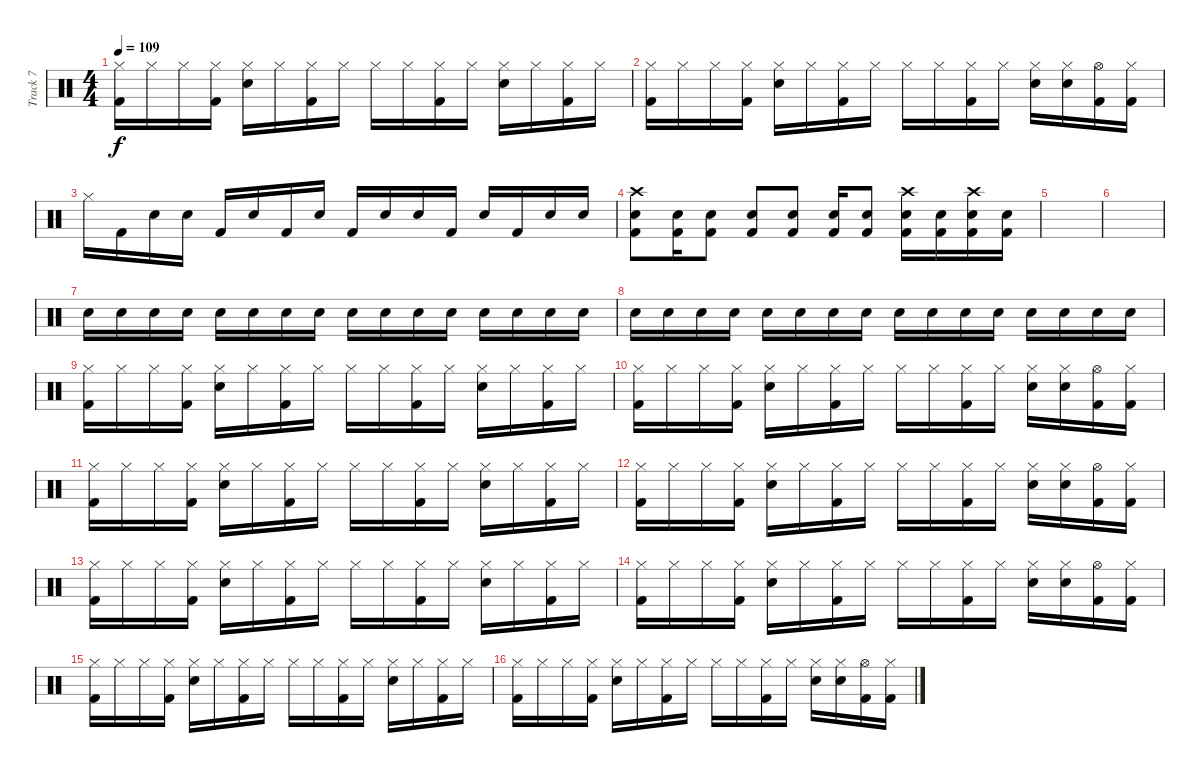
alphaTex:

\track ("Track 7" "Track 7") {instrument percussion}
\staff {score}
\articulation defaults
\ts (4 4)
\tempo 109
\clef neutral
\ks c
("Hi-Hat (closed)" "Kick (hit) 2").16{dy f} "Hi-Hat (closed)".16 "Hi-Hat (closed)".16 ("Hi-Hat (closed)" "Kick (hit) 2").16 ("Hi-Hat (closed)" "Snare (hit) 2").16 "Hi-Hat (closed)".16 ("Hi-Hat (closed)" "Kick (hit) 2").16 "Hi-Hat (closed)".16 "Hi-Hat (closed)".16 "Hi-Hat (closed)".16 ("Hi-Hat (closed)" "Kick (hit) 2").16 "Hi-Hat (closed)".16 ("Hi-Hat (closed)" "Snare (hit) 2").16 "Hi-Hat (closed)".16 ("Hi-Hat (closed)" "Kick (hit) 2").16 "Hi-Hat (closed)".16 |
("Hi-Hat (closed)" "Kick (hit) 2").16 "Hi-Hat (closed)".16 "Hi-Hat (closed)".16 ("Hi-Hat (closed)" "Kick (hit) 2").16 ("Hi-Hat (closed)" "Snare (hit) 2").16 "Hi-Hat (closed)".16 ("Hi-Hat (closed)" "Kick (hit) 2").16 "Hi-Hat (closed)".16 "Hi-Hat (closed)".16 "Hi-Hat (closed)".16 ("Hi-Hat (closed)" "Kick (hit) 2").16 "Hi-Hat (closed)".16 ("Hi-Hat (closed)" "Snare (hit) 2").16 ("Hi-Hat (closed)" "Snare (hit) 2").16 ("Hi-Hat (open)" "Kick (hit) 2").16 ("Hi-Hat (closed)" "Kick (hit) 2").16 |
"Hi-Hat (closed)".16 "Kick (hit) 2".16 "Snare (hit) 2".16 "Snare (hit) 2".16 "Kick (hit) 2".16 "Snare (hit) 2".16 "Kick (hit) 2".16 "Snare (hit) 2".16 "Kick (hit) 2".16 "Snare (hit) 2".16 "Snare (hit) 2".16 "Kick (hit) 2".16 "Snare (hit) 2".16 "Kick (hit) 2".16 "Snare (hit) 2".16 "Snare (hit) 2".16 |
("Crash high (hit)" "Snare (hit) 2" "Kick (hit) 2").8 ("Snare (hit) 2" "Kick (hit) 2").16 ("Snare (hit) 2" "Kick (hit) 2").8 ("Snare (hit) 2" "Kick (hit) 2").8 ("Snare (hit) 2" "Kick (hit) 2").8 ("Snare (hit) 2" "Kick (hit) 2").16 ("Snare (hit) 2" "Kick (hit) 2").8 ("Crash high (hit)" "Snare (hit) 2" "Kick (hit) 2").16 ("Snare (hit) 2" "Kick (hit) 2").16 ("Crash high (hit)" "Snare (hit) 2" "Kick (hit) 2").16 ("Snare (hit) 2" "Kick (hit) 2").16 |
|
|
"Snare (hit) 2".16 "Snare (hit) 2".16{volume 8} "Snare (hit) 2".16{volume 6} "Snare (hit) 2".16 "Snare (hit) 2".16 "Snare (hit) 2".16 "Snare (hit) 2".16{volume 7} "Snare (hit) 2".16 "Snare (hit) 2".16 "Snare (hit) 2".16{volume 8} "Snare (hit) 2".16 "Snare (hit) 2".16 "Snare (hit) 2".16 "Snare (hit) 2".16{volume 9} "Snare (hit) 2".16 "Snare (hit) 2".16 |
"Snare (hit) 2".16{volume 10} "Snare (hit) 2".16 "Snare (hit) 2".16 "Snare (hit) 2".16{volume 11} "Snare (hit) 2".16 "Snare (hit) 2".16 "Snare (hit) 2".16 "Snare (hit) 2".16{volume 12} "Snare (hit) 2".16 "Snare (hit) 2".16{volume 13} "Snare (hit) 2".16 "Snare (hit) 2".16 "Snare (hit) 2".16 "Snare (hit) 2".16 "Snare (hit) 2".16 "Snare (hit) 2".16 |
("Hi-Hat (closed)" "Kick (hit) 2").16 "Hi-Hat (closed)".16 "Hi-Hat (closed)".16 ("Hi-Hat (closed)" "Kick (hit) 2").16 ("Hi-Hat (closed)" "Snare (hit) 2").16 "Hi-Hat (closed)".16 ("Hi-Hat (closed)" "Kick (hit) 2").16 "Hi-Hat (closed)".16 "Hi-Hat (closed)".16 "Hi-Hat (closed)".16 ("Hi-Hat (closed)" "Kick (hit) 2").16 "Hi-Hat (closed)".16 ("Hi-Hat (closed)" "Snare (hit) 2").16 "Hi-Hat (closed)".16 ("Hi-Hat (closed)" "Kick (hit) 2").16 "Hi-Hat (closed)".16 |
("Hi-Hat (closed)" "Kick (hit) 2").16 "Hi-Hat (closed)".16 "Hi-Hat (closed)".16 ("Hi-Hat (closed)" "Kick (hit) 2").16 ("Hi-Hat (closed)" "Snare (hit) 2").16 "Hi-Hat (closed)".16 ("Hi-Hat (closed)" "Kick (hit) 2").16 "Hi-Hat (closed)".16 "Hi-Hat (closed)".16 "Hi-Hat (closed)".16 ("Hi-Hat (closed)" "Kick (hit) 2").16 "Hi-Hat (closed)".16 ("Hi-Hat (closed)" "Snare (hit) 2").16 ("Hi-Hat (closed)" "Snare (hit) 2").16 ("Hi-Hat (open)" "Kick (hit) 2").16 ("Hi-Hat (closed)" "Kick (hit) 2").16 |
("Hi-Hat (closed)" "Kick (hit) 2").16 "Hi-Hat (closed)".16 "Hi-Hat (closed)".16 ("Hi-Hat (closed)" "Kick (hit) 2").16 ("Hi-Hat (closed)" "Snare (hit) 2").16 "Hi-Hat (closed)".16 ("Hi-Hat (closed)" "Kick (hit) 2").16 "Hi-Hat (closed)".16 "Hi-Hat (closed)".16 "Hi-Hat (closed)".16 ("Hi-Hat (closed)" "Kick (hit) 2").16 "Hi-Hat (closed)".16 ("Hi-Hat (closed)" "Snare (hit) 2").16 "Hi-Hat (closed)".16 ("Hi-Hat (closed)" "Kick (hit) 2").16 "Hi-Hat (closed)".16 |
("Hi-Hat (closed)" "Kick (hit) 2").16 "Hi-Hat (closed)".16 "Hi-Hat (closed)".16 ("Hi-Hat (closed)" "Kick (hit) 2").16 ("Hi-Hat (closed)" "Snare (hit) 2").16 "Hi-Hat (closed)".16 ("Hi-Hat (closed)" "Kick (hit) 2").16 "Hi-Hat (closed)".16 "Hi-Hat (closed)".16 "Hi-Hat (closed)".16 ("Hi-Hat (closed)" "Kick (hit) 2").16 "Hi-Hat (closed)".16 ("Hi-Hat (closed)" "Snare (hit) 2").16 ("Hi-Hat (closed)" "Snare (hit) 2").16 ("Hi-Hat (open)" "Kick (hit) 2").16 ("Hi-Hat (closed)" "Kick (hit) 2").16 |
("Hi-Hat (closed)" "Kick (hit) 2").16 "Hi-Hat (closed)".16 "Hi-Hat (closed)".16 ("Hi-Hat (closed)" "Kick (hit) 2").16 ("Hi-Hat (closed)" "Snare (hit) 2").16 "Hi-Hat (closed)".16 ("Hi-Hat (closed)" "Kick (hit) 2").16 "Hi-Hat (closed)".16 "Hi-Hat (closed)".16 "Hi-Hat (closed)".16 ("Hi-Hat (closed)" "Kick (hit) 2").16 "Hi-Hat (closed)".16 ("Hi-Hat (closed)" "Snare (hit) 2").16 "Hi-Hat (closed)".16 ("Hi-Hat (closed)" "Kick (hit) 2").16 "Hi-Hat (closed)".16 |
("Hi-Hat (closed)" "Kick (hit) 2").16 "Hi-Hat (closed)".16 "Hi-Hat (closed)".16 ("Hi-Hat (closed)" "Kick (hit) 2").16 ("Hi-Hat (closed)" "Snare (hit) 2").16 "Hi-Hat (closed)".16 ("Hi-Hat (closed)" "Kick (hit) 2").16 "Hi-Hat (closed)".16 "Hi-Hat (closed)".16 "Hi-Hat (closed)".16 ("Hi-Hat (closed)" "Kick (hit) 2").16 "Hi-Hat (closed)".16 ("Hi-Hat (closed)" "Snare (hit) 2").16 ("Hi-Hat (closed)" "Snare (hit) 2").16 ("Hi-Hat (open)" "Kick (hit) 2").16 ("Hi-Hat (closed)" "Kick (hit) 2").16 |
("Hi-Hat (closed)" "Kick (hit) 2").16 "Hi-Hat (closed)".16 "Hi-Hat (closed)".16 ("Hi-Hat (closed)" "Kick (hit) 2").16 ("Hi-Hat (closed)" "Snare (hit) 2").16 "Hi-Hat (closed)".16 ("Hi-Hat (closed)" "Kick (hit) 2").16 "Hi-Hat (closed)".16 "Hi-Hat (closed)".16 "Hi-Hat (closed)".16 ("Hi-Hat (closed)" "Kick (hit) 2").16 "Hi-Hat (closed)".16 ("Hi-Hat (closed)" "Snare (hit) 2").16 "Hi-Hat (closed)".16 ("Hi-Hat (closed)" "Kick (hit) 2").16 "Hi-Hat (closed)".16 |
("Hi-Hat (closed)" "Kick (hit) 2").16 "Hi-Hat (closed)".16 "Hi-Hat (closed)".16 ("Hi-Hat (closed)" "Kick (hit) 2").16 ("Hi-Hat (closed)" "Snare (hit) 2").16 "Hi-Hat (closed)".16 ("Hi-Hat (closed)" "Kick (hit) 2").16 "Hi-Hat (closed)".16 "Hi-Hat (closed)".16 "Hi-Hat (closed)".16 ("Hi-Hat (closed)" "Kick (hit) 2").16 "Hi-Hat (closed)".16 ("Hi-Hat (closed)" "Snare (hit) 2").16 ("Hi-Hat (closed)" "Snare (hit) 2").16 ("Hi-Hat (open)" "Kick (hit) 2").16 ("Hi-Hat (closed)" "Kick (hit) 2").16
